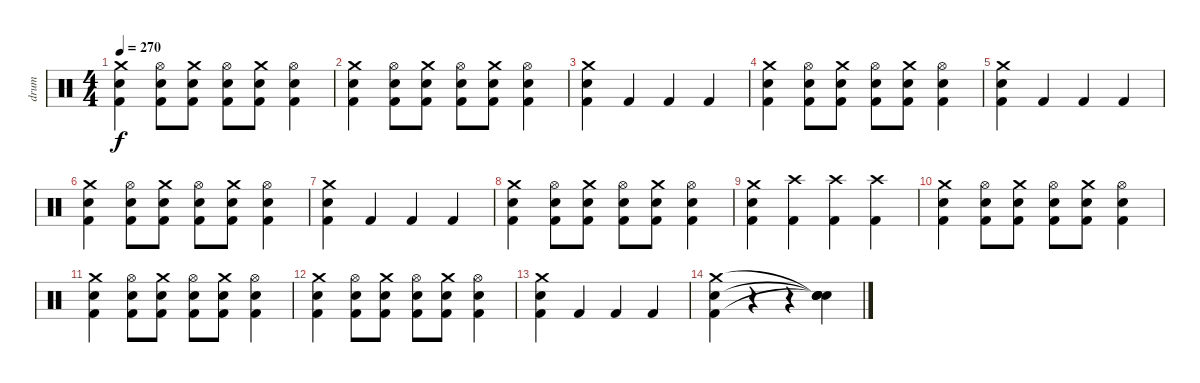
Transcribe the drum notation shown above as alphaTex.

\track ("drum" "drum") {instrument percussion}
\staff {score}
\articulation defaults
\ts (4 4)
\tempo 270
\clef neutral
\ks c
("Kick (hit) 2" "Snare (hit) 2" "Crash medium (hit)").4{dy f} ("Kick (hit) 2" "Snare (hit) 2" "Hi-Hat (open)").8 ("Kick (hit) 2" "Snare (hit) 2" "Crash medium (hit)").8 ("Kick (hit) 2" "Snare (hit) 2" "Hi-Hat (open)").8 ("Kick (hit) 2" "Snare (hit) 2" "Crash medium (hit)").8 ("Kick (hit) 2" "Snare (hit) 2" "Hi-Hat (open)").4 |
("Kick (hit) 2" "Snare (hit) 2" "Crash medium (hit)").4 ("Kick (hit) 2" "Snare (hit) 2" "Hi-Hat (open)").8 ("Kick (hit) 2" "Snare (hit) 2" "Crash medium (hit)").8 ("Kick (hit) 2" "Snare (hit) 2" "Hi-Hat (open)").8 ("Kick (hit) 2" "Snare (hit) 2" "Crash medium (hit)").8 ("Kick (hit) 2" "Snare (hit) 2" "Hi-Hat (open)").4 |
("Kick (hit) 2" "Snare (hit) 2" "Crash medium (hit)").4 "Kick (hit) 2".4 "Kick (hit) 2".4 "Kick (hit) 2".4 |
("Kick (hit) 2" "Snare (hit) 2" "Crash medium (hit)").4 ("Kick (hit) 2" "Snare (hit) 2" "Hi-Hat (open)").8 ("Kick (hit) 2" "Snare (hit) 2" "Crash medium (hit)").8 ("Kick (hit) 2" "Snare (hit) 2" "Hi-Hat (open)").8 ("Kick (hit) 2" "Snare (hit) 2" "Crash medium (hit)").8 ("Kick (hit) 2" "Snare (hit) 2" "Hi-Hat (open)").4 |
("Kick (hit) 2" "Snare (hit) 2" "Crash medium (hit)").4 "Kick (hit) 2".4 "Kick (hit) 2".4 "Kick (hit) 2".4 |
("Kick (hit) 2" "Snare (hit) 2" "Crash medium (hit)").4 ("Kick (hit) 2" "Snare (hit) 2" "Hi-Hat (open)").8 ("Kick (hit) 2" "Snare (hit) 2" "Crash medium (hit)").8 ("Kick (hit) 2" "Snare (hit) 2" "Hi-Hat (open)").8 ("Kick (hit) 2" "Snare (hit) 2" "Crash medium (hit)").8 ("Kick (hit) 2" "Snare (hit) 2" "Hi-Hat (open)").4 |
("Kick (hit) 2" "Snare (hit) 2" "Crash medium (hit)").4 "Kick (hit) 2".4 "Kick (hit) 2".4 "Kick (hit) 2".4 |
("Kick (hit) 2" "Snare (hit) 2" "Crash medium (hit)").4 ("Kick (hit) 2" "Snare (hit) 2" "Hi-Hat (open)").8 ("Kick (hit) 2" "Snare (hit) 2" "Crash medium (hit)").8 ("Kick (hit) 2" "Snare (hit) 2" "Hi-Hat (open)").8 ("Kick (hit) 2" "Snare (hit) 2" "Crash medium (hit)").8 ("Kick (hit) 2" "Snare (hit) 2" "Hi-Hat (open)").4 |
("Kick (hit) 2" "Snare (hit) 2" "Crash medium (hit)").4 ("Kick (hit) 2" "Crash high (hit)").4 ("Kick (hit) 2" "Crash high (hit)").4 ("Kick (hit) 2" "Crash high (hit)").4 |
("Kick (hit) 2" "Snare (hit) 2" "Crash medium (hit)").4 ("Kick (hit) 2" "Snare (hit) 2" "Hi-Hat (open)").8 ("Kick (hit) 2" "Snare (hit) 2" "Crash medium (hit)").8 ("Kick (hit) 2" "Snare (hit) 2" "Hi-Hat (open)").8 ("Kick (hit) 2" "Snare (hit) 2" "Crash medium (hit)").8 ("Kick (hit) 2" "Snare (hit) 2" "Hi-Hat (open)").4 |
("Kick (hit) 2" "Snare (hit) 2" "Crash medium (hit)").4 ("Kick (hit) 2" "Snare (hit) 2" "Hi-Hat (open)").8 ("Kick (hit) 2" "Snare (hit) 2" "Crash medium (hit)").8 ("Kick (hit) 2" "Snare (hit) 2" "Hi-Hat (open)").8 ("Kick (hit) 2" "Snare (hit) 2" "Crash medium (hit)").8 ("Kick (hit) 2" "Snare (hit) 2" "Hi-Hat (open)").4 |
("Kick (hit) 2" "Snare (hit) 2" "Crash medium (hit)").4 ("Kick (hit) 2" "Snare (hit) 2" "Hi-Hat (open)").8 ("Kick (hit) 2" "Snare (hit) 2" "Crash medium (hit)").8 ("Kick (hit) 2" "Snare (hit) 2" "Hi-Hat (open)").8 ("Kick (hit) 2" "Snare (hit) 2" "Crash medium (hit)").8 ("Kick (hit) 2" "Snare (hit) 2" "Hi-Hat (open)").4 |
("Kick (hit) 2" "Snare (hit) 2" "Crash medium (hit)").4 "Kick (hit) 2".4 "Kick (hit) 2".4 "Kick (hit) 2".4 |
("Kick (hit) 2" "Snare (hit) 2" "Crash medium (hit)").4 r.4 r.4 ("Snare (hit)"{t} "Snare (hit)"{t} "Snare (hit)"{t} "Snare (hit)").4
